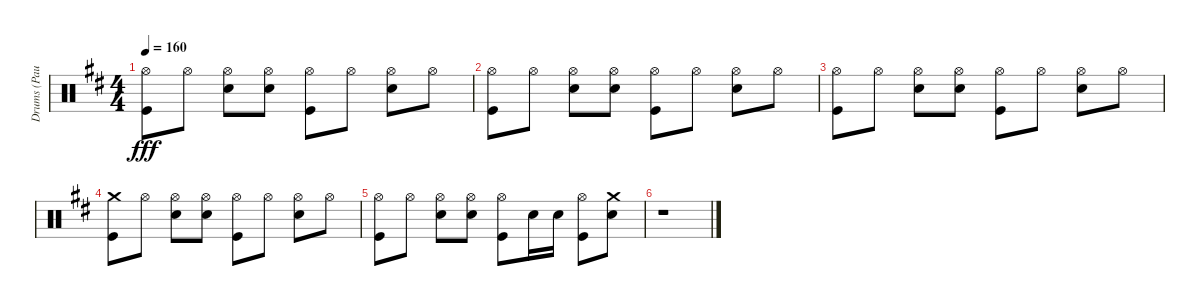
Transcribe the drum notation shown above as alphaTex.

\track ("Drums (Paul)" "Drums (Pau") {instrument percussion}
\staff {score}
\articulation defaults
\ts (4 4)
\tempo 160
\clef neutral
\ks d
("Hi-Hat (open)" "Kick (hit)").8{dy fff} "Hi-Hat (open)".8 ("Hi-Hat (open)" "Electric Snare (hit)").8 ("Hi-Hat (open)" "Electric Snare (hit)").8 ("Hi-Hat (open)" "Kick (hit)").8 "Hi-Hat (open)".8 ("Hi-Hat (open)" "Electric Snare (hit)").8 "Hi-Hat (open)".8 |
("Hi-Hat (open)" "Kick (hit)").8 "Hi-Hat (open)".8 ("Hi-Hat (open)" "Electric Snare (hit)").8 ("Hi-Hat (open)" "Electric Snare (hit)").8 ("Hi-Hat (open)" "Kick (hit)").8 "Hi-Hat (open)".8 ("Hi-Hat (open)" "Electric Snare (hit)").8 "Hi-Hat (open)".8 |
("Hi-Hat (open)" "Kick (hit)").8 "Hi-Hat (open)".8 ("Hi-Hat (open)" "Electric Snare (hit)").8 ("Hi-Hat (open)" "Electric Snare (hit)").8 ("Hi-Hat (open)" "Kick (hit)").8 "Hi-Hat (open)".8 ("Hi-Hat (open)" "Electric Snare (hit)").8 "Hi-Hat (open)".8 |
("Crash medium (hit)" "Kick (hit)").8 "Hi-Hat (open)".8 ("Hi-Hat (open)" "Electric Snare (hit)").8 ("Hi-Hat (open)" "Electric Snare (hit)").8 ("Hi-Hat (open)" "Kick (hit)").8 "Hi-Hat (open)".8 ("Hi-Hat (open)" "Electric Snare (hit)").8 "Hi-Hat (open)".8 |
("Hi-Hat (open)" "Kick (hit)").8 "Hi-Hat (open)".8 ("Hi-Hat (open)" "Electric Snare (hit)").8 ("Hi-Hat (open)" "Electric Snare (hit)").8 ("Hi-Hat (open)" "Kick (hit)").8 "Electric Snare (hit)".16 "Electric Snare (hit)".16 ("Hi-Hat (open)" "Kick (hit)").8 ("Crash medium (hit)" "Electric Snare (hit)").8 |
r.1
